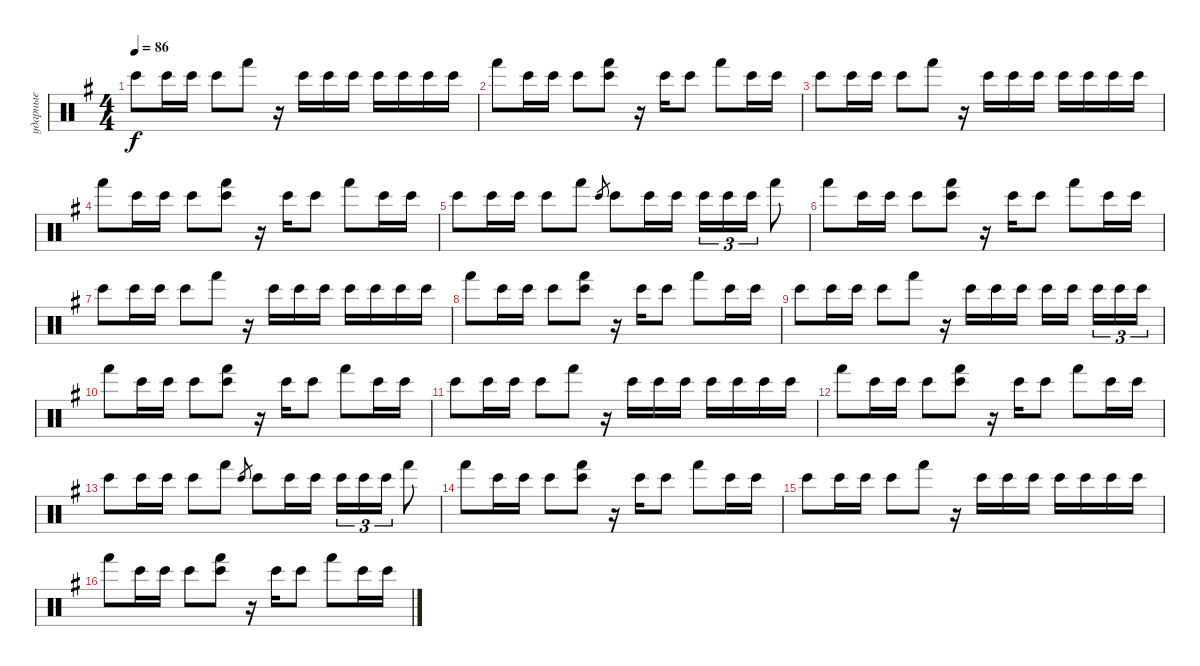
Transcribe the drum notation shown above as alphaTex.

\track ("ударные" "ударные") {instrument percussion}
\staff {score}
\articulation defaults
\ts (4 4)
\tempo 86
\clef neutral
\ks eminor "Bongo High (hit)".8{dy f} "Bongo High (hit)".16 "Bongo High (hit)".16 "Bongo High (hit)".8 "Hand (hit)".8
r.16 "Bongo High (hit)".16 "Bongo High (hit)".16 "Bongo High (hit)".16 "Bongo High (hit)".16 "Bongo High (hit)".16 "Bongo High (hit)".16 "Bongo High (hit)".16 |
"Hand (hit)".8 "Bongo High (hit)".16 "Bongo High (hit)".16 "Bongo High (hit)".8 ("Bongo High (hit)" "Hand (hit)").8 r.16 "Bongo High (hit)".16 "Bongo High (hit)".8 "Hand (hit)".8 "Bongo High (hit)".16 "Bongo High (hit)".16 |
"Bongo High (hit)".8 "Bongo High (hit)".16 "Bongo High (hit)".16 "Bongo High (hit)".8 "Hand (hit)".8 r.16 "Bongo High (hit)".16 "Bongo High (hit)".16 "Bongo High (hit)".16 "Bongo High (hit)".16 "Bongo High (hit)".16 "Bongo High (hit)".16 "Bongo High (hit)".16 |
"Hand (hit)".8 "Bongo High (hit)".16 "Bongo High (hit)".16 "Bongo High (hit)".8 ("Bongo High (hit)" "Hand (hit)").8 r.16 "Bongo High (hit)".16 "Bongo High (hit)".8 "Hand (hit)".8 "Bongo High (hit)".16 "Bongo High (hit)".16 |
"Bongo High (hit)".8 "Bongo High (hit)".16 "Bongo High (hit)".16 "Bongo High (hit)".8 "Hand (hit)".8 "Bongo High (hit)".8{gr} "Bongo High (hit)".8 "Bongo High (hit)".16 "Bongo High (hit)".16 "Bongo High (hit)".16{tu (3 2)} "Bongo High (hit)".16{tu (3 2)} "Bongo High (hit)".16{tu (3 2)} "Hand (hit)".8 |
"Hand (hit)".8 "Bongo High (hit)".16 "Bongo High (hit)".16 "Bongo High (hit)".8 ("Bongo High (hit)" "Hand (hit)").8 r.16 "Bongo High (hit)".16 "Bongo High (hit)".8 "Hand (hit)".8 "Bongo High (hit)".16 "Bongo High (hit)".16 |
"Bongo High (hit)".8 "Bongo High (hit)".16 "Bongo High (hit)".16 "Bongo High (hit)".8 "Hand (hit)".8 r.16 "Bongo High (hit)".16 "Bongo High (hit)".16 "Bongo High (hit)".16 "Bongo High (hit)".16 "Bongo High (hit)".16 "Bongo High (hit)".16 "Bongo High (hit)".16 |
"Hand (hit)".8 "Bongo High (hit)".16 "Bongo High (hit)".16 "Bongo High (hit)".8 ("Bongo High (hit)" "Hand (hit)").8 r.16 "Bongo High (hit)".16 "Bongo High (hit)".8 "Hand (hit)".8 "Bongo High (hit)".16 "Bongo High (hit)".16 |
"Bongo High (hit)".8 "Bongo High (hit)".16 "Bongo High (hit)".16 "Bongo High (hit)".8 "Hand (hit)".8 r.16 "Bongo High (hit)".16 "Bongo High (hit)".16 "Bongo High (hit)".16 "Bongo High (hit)".16 "Bongo High (hit)".16{beam splitsecondary} "Bongo High (hit)".16{tu (3 2)} "Bongo High (hit)".16{tu (3 2)} "Bongo High (hit)".16{tu (3 2)} |
"Hand (hit)".8 "Bongo High (hit)".16 "Bongo High (hit)".16 "Bongo High (hit)".8 ("Bongo High (hit)" "Hand (hit)").8 r.16 "Bongo High (hit)".16 "Bongo High (hit)".8 "Hand (hit)".8 "Bongo High (hit)".16 "Bongo High (hit)".16 |
"Bongo High (hit)".8 "Bongo High (hit)".16 "Bongo High (hit)".16 "Bongo High (hit)".8 "Hand (hit)".8 r.16 "Bongo High (hit)".16 "Bongo High (hit)".16 "Bongo High (hit)".16 "Bongo High (hit)".16 "Bongo High (hit)".16 "Bongo High (hit)".16 "Bongo High (hit)".16 |
"Hand (hit)".8 "Bongo High (hit)".16 "Bongo High (hit)".16 "Bongo High (hit)".8 ("Bongo High (hit)" "Hand (hit)").8 r.16 "Bongo High (hit)".16 "Bongo High (hit)".8 "Hand (hit)".8 "Bongo High (hit)".16 "Bongo High (hit)".16 |
"Bongo High (hit)".8 "Bongo High (hit)".16 "Bongo High (hit)".16 "Bongo High (hit)".8 "Hand (hit)".8 "Bongo High (hit)".8{gr} "Bongo High (hit)".8 "Bongo High (hit)".16 "Bongo High (hit)".16 "Bongo High (hit)".16{tu (3 2)} "Bongo High (hit)".16{tu (3 2)} "Bongo High (hit)".16{tu (3 2)} "Hand (hit)".8 |
"Hand (hit)".8 "Bongo High (hit)".16 "Bongo High (hit)".16 "Bongo High (hit)".8 ("Bongo High (hit)" "Hand (hit)").8 r.16 "Bongo High (hit)".16 "Bongo High (hit)".8 "Hand (hit)".8 "Bongo High (hit)".16 "Bongo High (hit)".16 |
"Bongo High (hit)".8 "Bongo High (hit)".16 "Bongo High (hit)".16 "Bongo High (hit)".8 "Hand (hit)".8 r.16 "Bongo High (hit)".16 "Bongo High (hit)".16 "Bongo High (hit)".16 "Bongo High (hit)".16 "Bongo High (hit)".16 "Bongo High (hit)".16 "Bongo High (hit)".16 |
"Hand (hit)".8 "Bongo High (hit)".16 "Bongo High (hit)".16 "Bongo High (hit)".8 ("Bongo High (hit)" "Hand (hit)").8 r.16 "Bongo High (hit)".16 "Bongo High (hit)".8 "Hand (hit)".8 "Bongo High (hit)".16 "Bongo High (hit)".16
